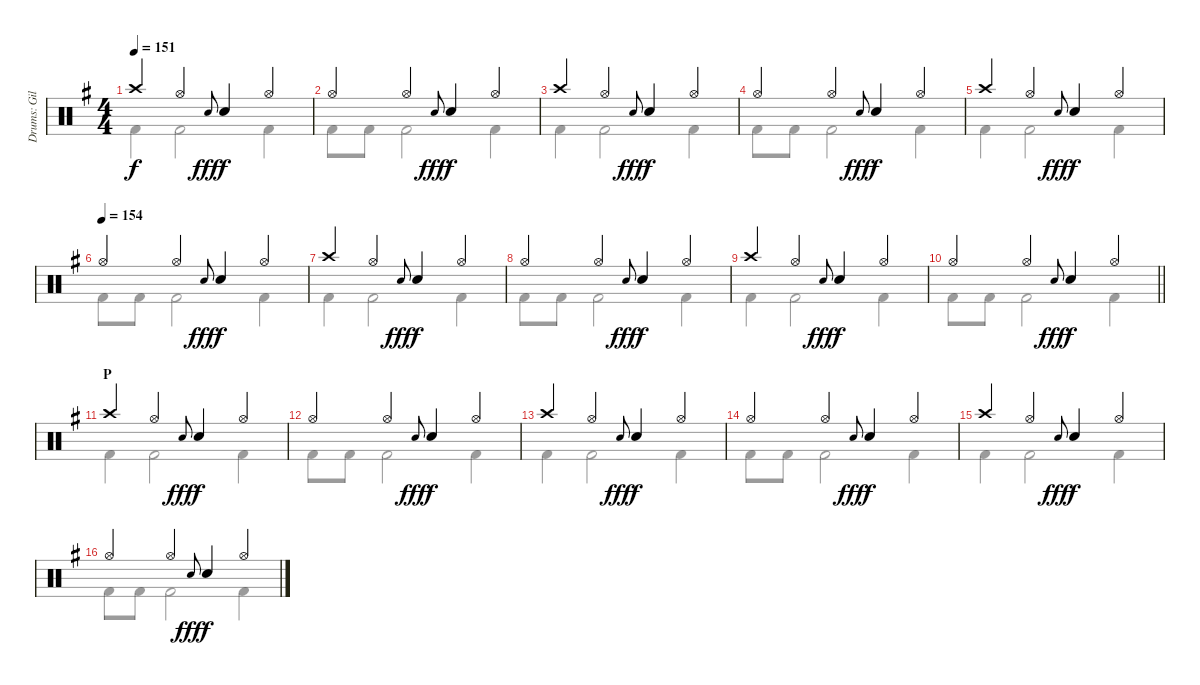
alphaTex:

\track ("Drums: Gil" "Drums: Gil") {instrument percussion}
\staff {score}
\articulation defaults
\voice
\ts (4 4)
\tempo 151
\clef neutral
\ks g "Crash high (hit)".4{dy f} "Hi-Hat (open)".4 "Electric Snare (hit)".8{gr onbeat dy fff} "Snare (hit) 2".4{dy f} "Hi-Hat (open)".4
|
"Hi-Hat (open)".4 "Hi-Hat (open)".4 "Electric Snare (hit)".8{gr onbeat dy fff} "Snare (hit) 2".4{dy f} "Hi-Hat (open)".4 |
"Crash high (hit)".4 "Hi-Hat (open)".4 "Electric Snare (hit)".8{gr onbeat dy fff} "Snare (hit) 2".4{dy f} "Hi-Hat (open)".4 |
"Hi-Hat (open)".4 "Hi-Hat (open)".4 "Electric Snare (hit)".8{gr onbeat dy fff} "Snare (hit) 2".4{dy f} "Hi-Hat (open)".4 |
"Crash high (hit)".4 "Hi-Hat (open)".4 "Electric Snare (hit)".8{gr onbeat dy fff} "Snare (hit) 2".4{dy f} "Hi-Hat (open)".4 |
\tempo (154)
"Hi-Hat (open)".4 "Hi-Hat (open)".4 "Electric Snare (hit)".8{gr onbeat dy fff} "Snare (hit) 2".4{dy f} "Hi-Hat (open)".4 |
"Crash high (hit)".4 "Hi-Hat (open)".4 "Electric Snare (hit)".8{gr onbeat dy fff} "Snare (hit) 2".4{dy f} "Hi-Hat (open)".4 |
"Hi-Hat (open)".4 "Hi-Hat (open)".4 "Electric Snare (hit)".8{gr onbeat dy fff} "Snare (hit) 2".4{dy f} "Hi-Hat (open)".4 |
"Crash high (hit)".4 "Hi-Hat (open)".4 "Electric Snare (hit)".8{gr onbeat dy fff} "Snare (hit) 2".4{dy f} "Hi-Hat (open)".4 |
\barLineRight lightlight "Hi-Hat (open)".4 "Hi-Hat (open)".4 "Electric Snare (hit)".8{gr onbeat dy fff} "Snare (hit) 2".4{dy f} "Hi-Hat (open)".4
|
\section ("" "P")
"Crash high (hit)".4 "Hi-Hat (open)".4 "Electric Snare (hit)".8{gr onbeat dy fff} "Snare (hit) 2".4{dy f} "Hi-Hat (open)".4 |
"Hi-Hat (open)".4 "Hi-Hat (open)".4 "Electric Snare (hit)".8{gr onbeat dy fff} "Snare (hit) 2".4{dy f} "Hi-Hat (open)".4 |
"Crash high (hit)".4 "Hi-Hat (open)".4 "Electric Snare (hit)".8{gr onbeat dy fff} "Snare (hit) 2".4{dy f} "Hi-Hat (open)".4 |
"Hi-Hat (open)".4 "Hi-Hat (open)".4 "Electric Snare (hit)".8{gr onbeat dy fff} "Snare (hit) 2".4{dy f} "Hi-Hat (open)".4 |
"Crash high (hit)".4 "Hi-Hat (open)".4 "Electric Snare (hit)".8{gr onbeat dy fff} "Snare (hit) 2".4{dy f} "Hi-Hat (open)".4 |
"Hi-Hat (open)".4 "Hi-Hat (open)".4 "Electric Snare (hit)".8{gr onbeat dy fff} "Snare (hit) 2".4{dy f} "Hi-Hat (open)".4
\voice
\clef neutral
\ottava regular
\simile none
\ks g "Kick (hit) 2".4{dy f} "Kick (hit) 2".2 "Kick (hit) 2".4
|
"Kick (hit) 2".8 "Kick (hit) 2".8 "Kick (hit) 2".2 "Kick (hit) 2".4 |
"Kick (hit) 2".4 "Kick (hit) 2".2 "Kick (hit) 2".4 |
"Kick (hit) 2".8 "Kick (hit) 2".8 "Kick (hit) 2".2 "Kick (hit) 2".4 |
"Kick (hit) 2".4 "Kick (hit) 2".2 "Kick (hit) 2".4 |
"Kick (hit) 2".8 "Kick (hit) 2".8 "Kick (hit) 2".2 "Kick (hit) 2".4 |
"Kick (hit) 2".4 "Kick (hit) 2".2 "Kick (hit) 2".4 |
"Kick (hit) 2".8 "Kick (hit) 2".8 "Kick (hit) 2".2 "Kick (hit) 2".4 |
"Kick (hit) 2".4 "Kick (hit) 2".2 "Kick (hit) 2".4 |
\barLineRight lightlight "Kick (hit) 2".8 "Kick (hit) 2".8 "Kick (hit) 2".2 "Kick (hit) 2".4
|
"Kick (hit) 2".4 "Kick (hit) 2".2 "Kick (hit) 2".4 |
"Kick (hit) 2".8 "Kick (hit) 2".8 "Kick (hit) 2".2 "Kick (hit) 2".4 |
"Kick (hit) 2".4 "Kick (hit) 2".2 "Kick (hit) 2".4 |
"Kick (hit) 2".8 "Kick (hit) 2".8 "Kick (hit) 2".2 "Kick (hit) 2".4 |
"Kick (hit) 2".4 "Kick (hit) 2".2 "Kick (hit) 2".4 |
"Kick (hit) 2".8 "Kick (hit) 2".8 "Kick (hit) 2".2 "Kick (hit) 2".4
